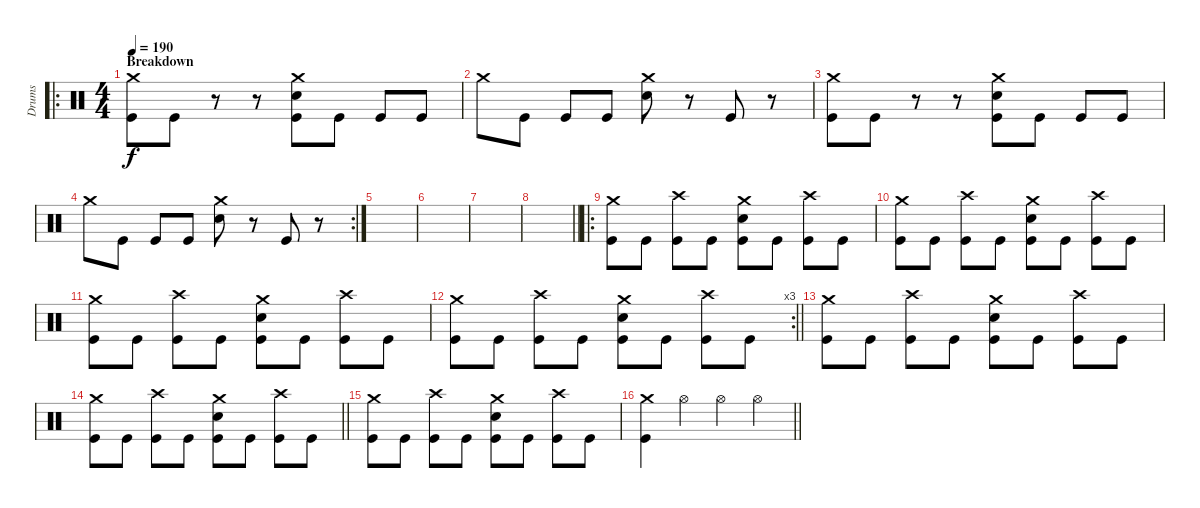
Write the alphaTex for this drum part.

\track ("Drums" "Drums") {instrument percussion}
\staff {score}
\articulation defaults
\ro
\ts (4 4)
\section ("" "Breakdown")
\tempo 190
\clef neutral
\ks c
("Crash medium (hit)" "Kick (hit)").8{dy f} "Kick (hit)".8 r.8 r.8 ("Crash medium (hit)" "Snare (hit) 2" "Kick (hit)").8 "Kick (hit)".8 "Kick (hit)".8 "Kick (hit)".8 |
"Crash medium (hit)".8 "Kick (hit)".8 "Kick (hit)".8 "Kick (hit)".8 ("Crash medium (hit)" "Snare (hit) 2").8 r.8 "Kick (hit)".8 r.8 |
("Crash medium (hit)" "Kick (hit)").8 "Kick (hit)".8 r.8 r.8 ("Crash medium (hit)" "Snare (hit) 2" "Kick (hit)").8 "Kick (hit)".8 "Kick (hit)".8 "Kick (hit)".8 |
\rc 2 "Crash medium (hit)".8 "Kick (hit)".8 "Kick (hit)".8 "Kick (hit)".8
("Crash medium (hit)" "Snare (hit) 2").8 r.8 "Kick (hit)".8 r.8 |
|
|
|
\barLineRight lightlight
|
\ro
("Crash medium (hit)" "Kick (hit)").8 "Kick (hit)".8 ("Crash high (hit)" "Kick (hit)").8 "Kick (hit)".8 ("Crash medium (hit)" "Snare (hit) 2" "Kick (hit)").8 "Kick (hit)".8 ("Crash high (hit)" "Kick (hit)").8 "Kick (hit)".8 |
("Crash medium (hit)" "Kick (hit)").8 "Kick (hit)".8 ("Crash high (hit)" "Kick (hit)").8 "Kick (hit)".8 ("Crash medium (hit)" "Snare (hit) 2" "Kick (hit)").8 "Kick (hit)".8 ("Crash high (hit)" "Kick (hit)").8 "Kick (hit)".8 |
("Crash medium (hit)" "Kick (hit)").8 "Kick (hit)".8 ("Crash high (hit)" "Kick (hit)").8 "Kick (hit)".8 ("Crash medium (hit)" "Snare (hit) 2" "Kick (hit)").8 "Kick (hit)".8 ("Crash high (hit)" "Kick (hit)").8 "Kick (hit)".8 |
\rc 3
\barLineRight lightlight
("Crash medium (hit)" "Kick (hit)").8 "Kick (hit)".8 ("Crash high (hit)" "Kick (hit)").8 "Kick (hit)".8 ("Crash medium (hit)" "Snare (hit) 2" "Kick (hit)").8 "Kick (hit)".8 ("Crash high (hit)" "Kick (hit)").8 "Kick (hit)".8 |
("Crash medium (hit)" "Kick (hit)").8 "Kick (hit)".8 ("Crash high (hit)" "Kick (hit)").8 "Kick (hit)".8 ("Crash medium (hit)" "Snare (hit) 2" "Kick (hit)").8 "Kick (hit)".8 ("Crash high (hit)" "Kick (hit)").8 "Kick (hit)".8 |
\barLineRight lightlight
("Crash medium (hit)" "Kick (hit)").8 "Kick (hit)".8 ("Crash high (hit)" "Kick (hit)").8 "Kick (hit)".8 ("Crash medium (hit)" "Snare (hit) 2" "Kick (hit)").8 "Kick (hit)".8 ("Crash high (hit)" "Kick (hit)").8 "Kick (hit)".8 |
("Crash medium (hit)" "Kick (hit)").8 "Kick (hit)".8 ("Crash high (hit)" "Kick (hit)").8 "Kick (hit)".8 ("Crash medium (hit)" "Snare (hit) 2" "Kick (hit)").8 "Kick (hit)".8 ("Crash high (hit)" "Kick (hit)").8 "Kick (hit)".8 |
\barLineRight lightlight
("Crash medium (hit)" "Kick (hit)").4 "Hi-Hat (open)".4 "Hi-Hat (open)".4 "Hi-Hat (open)".4
